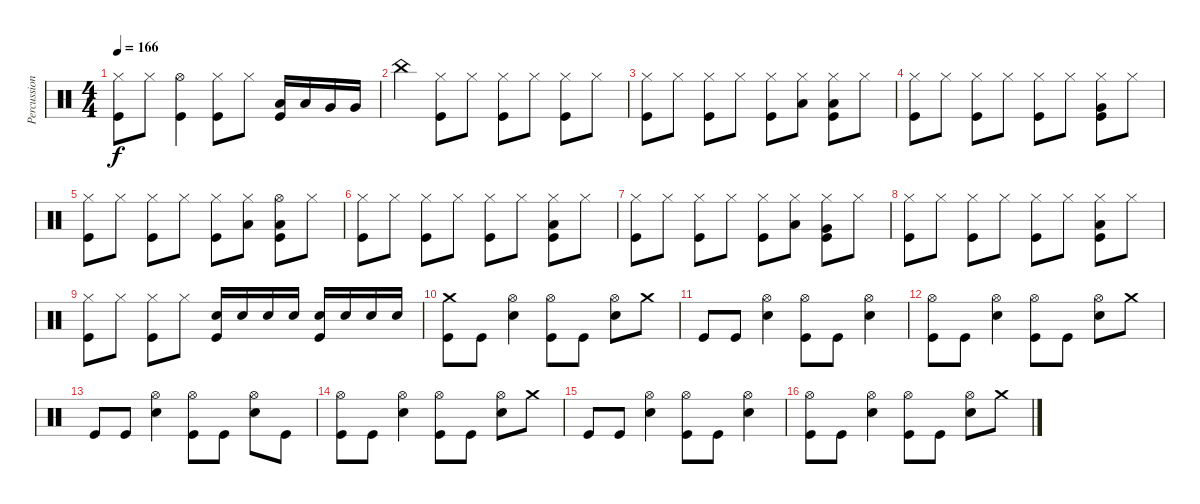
\track ("Percussion" "Percussion") {instrument percussion}
\staff {score}
\articulation defaults
\ts (4 4)
\tempo 166
\clef neutral
\ks c
("Hi-Hat (closed)" "Kick (hit)").8{dy f} "Hi-Hat (closed)".8 ("Hi-Hat (open)" "Kick (hit)").4 ("Hi-Hat (closed)" "Kick (hit)").8 "Hi-Hat (closed)".8 ("Low Tom (hit)" "Kick (hit)").16 "Low Tom (hit)".16 "Very Low Tom (hit)".16 "Very Low Tom (hit)".16 |
"China (hit)".4 ("Hi-Hat (closed)" "Kick (hit)").8 "Hi-Hat (closed)".8 ("Hi-Hat (closed)" "Kick (hit)").8 "Hi-Hat (closed)".8 ("Hi-Hat (closed)" "Kick (hit)").8 "Hi-Hat (closed)".8 |
("Hi-Hat (closed)" "Kick (hit)").8 "Hi-Hat (closed)".8 ("Hi-Hat (closed)" "Kick (hit)").8 "Hi-Hat (closed)".8 ("Hi-Hat (closed)" "Kick (hit)").8 ("Hi-Hat (closed)" "Low Tom (hit)").8 ("Hi-Hat (closed)" "Low Floor Tom (hit)" "Kick (hit)").8 "Hi-Hat (closed)".8 |
("Hi-Hat (closed)" "Kick (hit)").8 "Hi-Hat (closed)".8 ("Hi-Hat (closed)" "Kick (hit)").8 "Hi-Hat (closed)".8 ("Hi-Hat (closed)" "Kick (hit)").8 "Hi-Hat (closed)".8 ("Hi-Hat (closed)" "Very Low Tom (hit)" "Kick (hit)").8 "Hi-Hat (closed)".8 |
("Hi-Hat (closed)" "Kick (hit)").8 "Hi-Hat (closed)".8 ("Hi-Hat (closed)" "Kick (hit)").8 "Hi-Hat (closed)".8 ("Hi-Hat (closed)" "Kick (hit)").8 ("Hi-Hat (closed)" "Low Tom (hit)").8 ("Hi-Hat (open)" "Low Floor Tom (hit)" "Kick (hit)").8 "Hi-Hat (closed)".8 |
("Hi-Hat (closed)" "Kick (hit)").8 "Hi-Hat (closed)".8 ("Hi-Hat (closed)" "Kick (hit)").8 "Hi-Hat (closed)".8 ("Hi-Hat (closed)" "Kick (hit)").8 "Hi-Hat (closed)".8 ("Hi-Hat (closed)" "Low Floor Tom (hit)" "Kick (hit)").8 "Hi-Hat (closed)".8 |
("Hi-Hat (closed)" "Kick (hit)").8 "Hi-Hat (closed)".8 ("Hi-Hat (closed)" "Kick (hit)").8 "Hi-Hat (closed)".8 ("Hi-Hat (closed)" "Kick (hit)").8 ("Hi-Hat (closed)" "Low Tom (hit)").8 ("Hi-Hat (closed)" "Very Low Tom (hit)" "Kick (hit)").8 "Hi-Hat (closed)".8 |
("Hi-Hat (closed)" "Kick (hit)").8 "Hi-Hat (closed)".8 ("Hi-Hat (closed)" "Kick (hit)").8 "Hi-Hat (closed)".8 ("Hi-Hat (closed)" "Kick (hit)").8 "Hi-Hat (closed)".8 ("Hi-Hat (closed)" "Low Floor Tom (hit)" "Kick (hit)").8 "Hi-Hat (closed)".8 |
("Hi-Hat (closed)" "Kick (hit)").8 "Hi-Hat (closed)".8 ("Hi-Hat (closed)" "Kick (hit)").8 "Hi-Hat (closed)".8 ("Electric Snare (hit)" "Kick (hit)").16 "Electric Snare (hit)".16 "Electric Snare (hit)".16 "Electric Snare (hit)".16 ("Electric Snare (hit)" "Kick (hit)").16 "Electric Snare (hit)".16 "Electric Snare (hit)".16 "Electric Snare (hit)".16 |
("Crash medium (hit)" "Kick (hit)").8 "Kick (hit)".8 ("Hi-Hat (open)" "Electric Snare (hit)").4 ("Hi-Hat (open)" "Kick (hit)").8 "Kick (hit)".8 ("Hi-Hat (open)" "Electric Snare (hit)").8 "Crash medium (hit)".8 |
"Kick (hit)".8 "Kick (hit)".8 ("Hi-Hat (open)" "Electric Snare (hit)").4 ("Hi-Hat (open)" "Kick (hit)").8 "Kick (hit)".8 ("Hi-Hat (open)" "Electric Snare (hit)").4 |
("Hi-Hat (open)" "Kick (hit)").8 "Kick (hit)".8 ("Hi-Hat (open)" "Electric Snare (hit)").4 ("Hi-Hat (open)" "Kick (hit)").8 "Kick (hit)".8 ("Hi-Hat (open)" "Electric Snare (hit)").8 "Crash medium (hit)".8 |
"Kick (hit)".8 "Kick (hit)".8 ("Hi-Hat (open)" "Electric Snare (hit)").4 ("Hi-Hat (open)" "Kick (hit)").8 "Kick (hit)".8 ("Hi-Hat (open)" "Electric Snare (hit)").8 "Kick (hit)".8 |
("Hi-Hat (open)" "Kick (hit)").8 "Kick (hit)".8 ("Hi-Hat (open)" "Electric Snare (hit)").4 ("Hi-Hat (open)" "Kick (hit)").8 "Kick (hit)".8 ("Hi-Hat (open)" "Electric Snare (hit)").8 "Crash medium (hit)".8 |
"Kick (hit)".8 "Kick (hit)".8 ("Hi-Hat (open)" "Electric Snare (hit)").4 ("Hi-Hat (open)" "Kick (hit)").8 "Kick (hit)".8 ("Hi-Hat (open)" "Electric Snare (hit)").4 |
("Hi-Hat (open)" "Kick (hit)").8 "Kick (hit)".8 ("Hi-Hat (open)" "Electric Snare (hit)").4 ("Hi-Hat (open)" "Kick (hit)").8 "Kick (hit)".8 ("Hi-Hat (open)" "Electric Snare (hit)").8 "Crash medium (hit)".8
